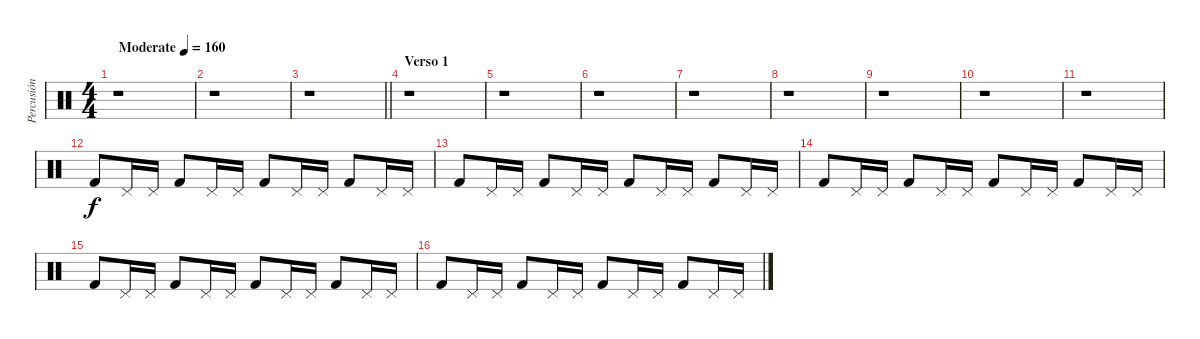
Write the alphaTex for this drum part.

\track ("Percusión" "Percusión") {instrument percussion}
\staff {score}
\articulation defaults
\ts (4 4)
\tempo (160 "Moderate")
\clef neutral
\ks c
r.1{dy f} |
r.1 |
\barLineRight lightlight
r.1 |
\section ("" "Verso 1")
r.1 |
r.1 |
r.1 |
r.1 |
r.1 |
r.1 |
r.1 |
r.1 |
"Kick (hit) 2".8 "Pedal Hi-Hat (hit)".16 "Pedal Hi-Hat (hit)".16 "Kick (hit) 2".8 "Pedal Hi-Hat (hit)".16 "Pedal Hi-Hat (hit)".16 "Kick (hit) 2".8 "Pedal Hi-Hat (hit)".16 "Pedal Hi-Hat (hit)".16 "Kick (hit) 2".8 "Pedal Hi-Hat (hit)".16 "Pedal Hi-Hat (hit)".16 |
"Kick (hit) 2".8 "Pedal Hi-Hat (hit)".16 "Pedal Hi-Hat (hit)".16 "Kick (hit) 2".8 "Pedal Hi-Hat (hit)".16 "Pedal Hi-Hat (hit)".16 "Kick (hit) 2".8 "Pedal Hi-Hat (hit)".16 "Pedal Hi-Hat (hit)".16 "Kick (hit) 2".8 "Pedal Hi-Hat (hit)".16 "Pedal Hi-Hat (hit)".16 |
"Kick (hit) 2".8 "Pedal Hi-Hat (hit)".16 "Pedal Hi-Hat (hit)".16 "Kick (hit) 2".8 "Pedal Hi-Hat (hit)".16 "Pedal Hi-Hat (hit)".16 "Kick (hit) 2".8 "Pedal Hi-Hat (hit)".16 "Pedal Hi-Hat (hit)".16 "Kick (hit) 2".8 "Pedal Hi-Hat (hit)".16 "Pedal Hi-Hat (hit)".16 |
"Kick (hit) 2".8 "Pedal Hi-Hat (hit)".16 "Pedal Hi-Hat (hit)".16 "Kick (hit) 2".8 "Pedal Hi-Hat (hit)".16 "Pedal Hi-Hat (hit)".16 "Kick (hit) 2".8 "Pedal Hi-Hat (hit)".16 "Pedal Hi-Hat (hit)".16 "Kick (hit) 2".8 "Pedal Hi-Hat (hit)".16 "Pedal Hi-Hat (hit)".16 |
"Kick (hit) 2".8 "Pedal Hi-Hat (hit)".16 "Pedal Hi-Hat (hit)".16 "Kick (hit) 2".8 "Pedal Hi-Hat (hit)".16 "Pedal Hi-Hat (hit)".16 "Kick (hit) 2".8 "Pedal Hi-Hat (hit)".16 "Pedal Hi-Hat (hit)".16 "Kick (hit) 2".8 "Pedal Hi-Hat (hit)".16 "Pedal Hi-Hat (hit)".16
